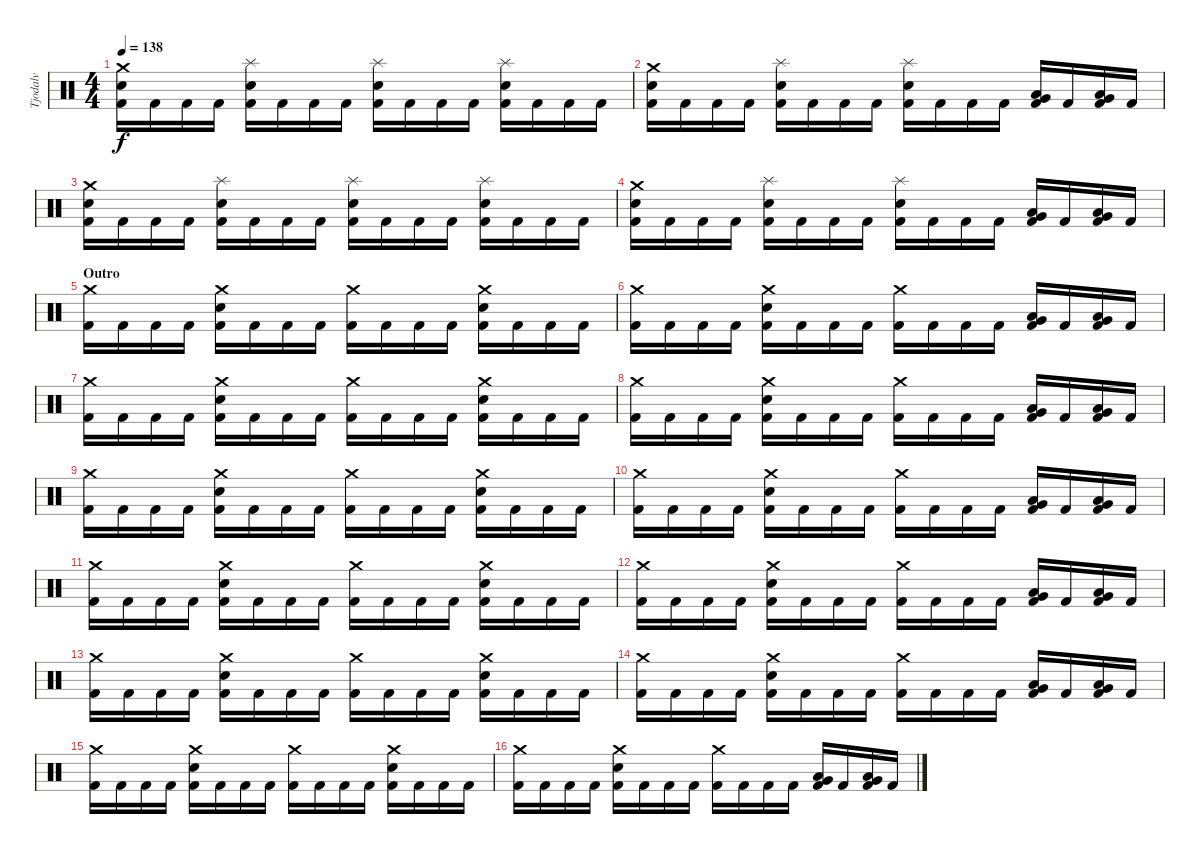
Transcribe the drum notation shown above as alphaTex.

\track ("Tjodalv" "Tjodalv") {instrument percussion}
\staff {score}
\articulation defaults
\ts (4 4)
\tempo 138
\clef neutral
\ks c
("Crash medium (hit)" "Snare (hit) 2" "Kick (hit) 2").16{dy f} "Kick (hit) 2".16 "Kick (hit) 2".16 "Kick (hit) 2".16 ("Splash (hit)" "Snare (hit) 2" "Kick (hit) 2").16 "Kick (hit) 2".16 "Kick (hit) 2".16 "Kick (hit) 2".16 ("Splash (hit)" "Snare (hit) 2" "Kick (hit) 2").16 "Kick (hit) 2".16 "Kick (hit) 2".16 "Kick (hit) 2".16 ("Splash (hit)" "Snare (hit) 2" "Kick (hit) 2").16 "Kick (hit) 2".16 "Kick (hit) 2".16 "Kick (hit) 2".16 |
("Crash medium (hit)" "Snare (hit) 2" "Kick (hit) 2").16 "Kick (hit) 2".16 "Kick (hit) 2".16 "Kick (hit) 2".16 ("Splash (hit)" "Snare (hit) 2" "Kick (hit) 2").16 "Kick (hit) 2".16 "Kick (hit) 2".16 "Kick (hit) 2".16 ("Splash (hit)" "Snare (hit) 2" "Kick (hit) 2").16 "Kick (hit) 2".16 "Kick (hit) 2".16 "Kick (hit) 2".16 ("Low Tom (hit)" "Very Low Tom (hit)" "Kick (hit) 2").16 "Kick (hit) 2".16 ("Low Floor Tom (hit)" "Very Low Tom (hit)" "Kick (hit) 2").16 "Kick (hit) 2".16 |
("Crash medium (hit)" "Snare (hit) 2" "Kick (hit) 2").16 "Kick (hit) 2".16 "Kick (hit) 2".16 "Kick (hit) 2".16 ("Splash (hit)" "Snare (hit) 2" "Kick (hit) 2").16 "Kick (hit) 2".16 "Kick (hit) 2".16 "Kick (hit) 2".16 ("Splash (hit)" "Snare (hit) 2" "Kick (hit) 2").16 "Kick (hit) 2".16 "Kick (hit) 2".16 "Kick (hit) 2".16 ("Splash (hit)" "Snare (hit) 2" "Kick (hit) 2").16 "Kick (hit) 2".16 "Kick (hit) 2".16 "Kick (hit) 2".16 |
("Crash medium (hit)" "Snare (hit) 2" "Kick (hit) 2").16 "Kick (hit) 2".16 "Kick (hit) 2".16 "Kick (hit) 2".16 ("Splash (hit)" "Snare (hit) 2" "Kick (hit) 2").16 "Kick (hit) 2".16 "Kick (hit) 2".16 "Kick (hit) 2".16 ("Splash (hit)" "Snare (hit) 2" "Kick (hit) 2").16 "Kick (hit) 2".16 "Kick (hit) 2".16 "Kick (hit) 2".16 ("Low Tom (hit)" "Very Low Tom (hit)" "Kick (hit) 2").16 "Kick (hit) 2".16 ("Low Floor Tom (hit)" "Very Low Tom (hit)" "Kick (hit) 2").16 "Kick (hit) 2".16 |
\section ("" "Outro")
("Crash medium (hit)" "Kick (hit) 2").16 "Kick (hit) 2".16 "Kick (hit) 2".16 "Kick (hit) 2".16 ("Crash medium (hit)" "Snare (hit) 2" "Kick (hit) 2").16 "Kick (hit) 2".16 "Kick (hit) 2".16 "Kick (hit) 2".16 ("Crash medium (hit)" "Kick (hit) 2").16 "Kick (hit) 2".16 "Kick (hit) 2".16 "Kick (hit) 2".16 ("Crash medium (hit)" "Snare (hit) 2" "Kick (hit) 2").16 "Kick (hit) 2".16 "Kick (hit) 2".16 "Kick (hit) 2".16 |
("Crash medium (hit)" "Kick (hit) 2").16 "Kick (hit) 2".16 "Kick (hit) 2".16 "Kick (hit) 2".16 ("Crash medium (hit)" "Snare (hit) 2" "Kick (hit) 2").16 "Kick (hit) 2".16 "Kick (hit) 2".16 "Kick (hit) 2".16 ("Crash medium (hit)" "Kick (hit) 2").16 "Kick (hit) 2".16 "Kick (hit) 2".16 "Kick (hit) 2".16 ("Low Tom (hit)" "Very Low Tom (hit)" "Kick (hit) 2").16 "Kick (hit) 2".16 ("Low Floor Tom (hit)" "Very Low Tom (hit)" "Kick (hit) 2").16 "Kick (hit) 2".16 |
("Crash medium (hit)" "Kick (hit) 2").16 "Kick (hit) 2".16 "Kick (hit) 2".16 "Kick (hit) 2".16 ("Crash medium (hit)" "Snare (hit) 2" "Kick (hit) 2").16 "Kick (hit) 2".16 "Kick (hit) 2".16 "Kick (hit) 2".16 ("Crash medium (hit)" "Kick (hit) 2").16 "Kick (hit) 2".16 "Kick (hit) 2".16 "Kick (hit) 2".16 ("Crash medium (hit)" "Snare (hit) 2" "Kick (hit) 2").16 "Kick (hit) 2".16 "Kick (hit) 2".16 "Kick (hit) 2".16 |
("Crash medium (hit)" "Kick (hit) 2").16 "Kick (hit) 2".16 "Kick (hit) 2".16 "Kick (hit) 2".16 ("Crash medium (hit)" "Snare (hit) 2" "Kick (hit) 2").16 "Kick (hit) 2".16 "Kick (hit) 2".16 "Kick (hit) 2".16 ("Crash medium (hit)" "Kick (hit) 2").16 "Kick (hit) 2".16 "Kick (hit) 2".16 "Kick (hit) 2".16 ("Low Tom (hit)" "Very Low Tom (hit)" "Kick (hit) 2").16 "Kick (hit) 2".16 ("Low Floor Tom (hit)" "Very Low Tom (hit)" "Kick (hit) 2").16 "Kick (hit) 2".16 |
("Crash medium (hit)" "Kick (hit) 2").16 "Kick (hit) 2".16 "Kick (hit) 2".16 "Kick (hit) 2".16 ("Crash medium (hit)" "Snare (hit) 2" "Kick (hit) 2").16 "Kick (hit) 2".16 "Kick (hit) 2".16 "Kick (hit) 2".16 ("Crash medium (hit)" "Kick (hit) 2").16 "Kick (hit) 2".16 "Kick (hit) 2".16 "Kick (hit) 2".16 ("Crash medium (hit)" "Snare (hit) 2" "Kick (hit) 2").16 "Kick (hit) 2".16 "Kick (hit) 2".16 "Kick (hit) 2".16 |
("Crash medium (hit)" "Kick (hit) 2").16 "Kick (hit) 2".16 "Kick (hit) 2".16 "Kick (hit) 2".16 ("Crash medium (hit)" "Snare (hit) 2" "Kick (hit) 2").16 "Kick (hit) 2".16 "Kick (hit) 2".16 "Kick (hit) 2".16 ("Crash medium (hit)" "Kick (hit) 2").16 "Kick (hit) 2".16 "Kick (hit) 2".16 "Kick (hit) 2".16 ("Low Tom (hit)" "Very Low Tom (hit)" "Kick (hit) 2").16 "Kick (hit) 2".16 ("Low Floor Tom (hit)" "Very Low Tom (hit)" "Kick (hit) 2").16 "Kick (hit) 2".16 |
("Crash medium (hit)" "Kick (hit) 2").16 "Kick (hit) 2".16 "Kick (hit) 2".16 "Kick (hit) 2".16 ("Crash medium (hit)" "Snare (hit) 2" "Kick (hit) 2").16 "Kick (hit) 2".16 "Kick (hit) 2".16 "Kick (hit) 2".16 ("Crash medium (hit)" "Kick (hit) 2").16 "Kick (hit) 2".16 "Kick (hit) 2".16 "Kick (hit) 2".16 ("Crash medium (hit)" "Snare (hit) 2" "Kick (hit) 2").16 "Kick (hit) 2".16 "Kick (hit) 2".16 "Kick (hit) 2".16 |
("Crash medium (hit)" "Kick (hit) 2").16 "Kick (hit) 2".16 "Kick (hit) 2".16 "Kick (hit) 2".16 ("Crash medium (hit)" "Snare (hit) 2" "Kick (hit) 2").16 "Kick (hit) 2".16 "Kick (hit) 2".16 "Kick (hit) 2".16 ("Crash medium (hit)" "Kick (hit) 2").16 "Kick (hit) 2".16 "Kick (hit) 2".16 "Kick (hit) 2".16 ("Low Tom (hit)" "Very Low Tom (hit)" "Kick (hit) 2").16 "Kick (hit) 2".16 ("Low Floor Tom (hit)" "Very Low Tom (hit)" "Kick (hit) 2").16 "Kick (hit) 2".16 |
("Crash medium (hit)" "Kick (hit) 2").16 "Kick (hit) 2".16 "Kick (hit) 2".16 "Kick (hit) 2".16 ("Crash medium (hit)" "Snare (hit) 2" "Kick (hit) 2").16 "Kick (hit) 2".16 "Kick (hit) 2".16 "Kick (hit) 2".16 ("Crash medium (hit)" "Kick (hit) 2").16 "Kick (hit) 2".16 "Kick (hit) 2".16 "Kick (hit) 2".16 ("Crash medium (hit)" "Snare (hit) 2" "Kick (hit) 2").16 "Kick (hit) 2".16 "Kick (hit) 2".16 "Kick (hit) 2".16 |
("Crash medium (hit)" "Kick (hit) 2").16 "Kick (hit) 2".16 "Kick (hit) 2".16 "Kick (hit) 2".16 ("Crash medium (hit)" "Snare (hit) 2" "Kick (hit) 2").16 "Kick (hit) 2".16 "Kick (hit) 2".16 "Kick (hit) 2".16 ("Crash medium (hit)" "Kick (hit) 2").16 "Kick (hit) 2".16 "Kick (hit) 2".16 "Kick (hit) 2".16 ("Low Tom (hit)" "Very Low Tom (hit)" "Kick (hit) 2").16 "Kick (hit) 2".16 ("Low Floor Tom (hit)" "Very Low Tom (hit)" "Kick (hit) 2").16 "Kick (hit) 2".16 |
("Crash medium (hit)" "Kick (hit) 2").16 "Kick (hit) 2".16 "Kick (hit) 2".16 "Kick (hit) 2".16 ("Crash medium (hit)" "Snare (hit) 2" "Kick (hit) 2").16 "Kick (hit) 2".16 "Kick (hit) 2".16 "Kick (hit) 2".16 ("Crash medium (hit)" "Kick (hit) 2").16 "Kick (hit) 2".16 "Kick (hit) 2".16 "Kick (hit) 2".16 ("Crash medium (hit)" "Snare (hit) 2" "Kick (hit) 2").16 "Kick (hit) 2".16 "Kick (hit) 2".16 "Kick (hit) 2".16 |
("Crash medium (hit)" "Kick (hit) 2").16 "Kick (hit) 2".16 "Kick (hit) 2".16 "Kick (hit) 2".16 ("Crash medium (hit)" "Snare (hit) 2" "Kick (hit) 2").16 "Kick (hit) 2".16 "Kick (hit) 2".16 "Kick (hit) 2".16 ("Crash medium (hit)" "Kick (hit) 2").16 "Kick (hit) 2".16 "Kick (hit) 2".16 "Kick (hit) 2".16 ("Low Tom (hit)" "Very Low Tom (hit)" "Kick (hit) 2").16 "Kick (hit) 2".16 ("Low Floor Tom (hit)" "Very Low Tom (hit)" "Kick (hit) 2").16 "Kick (hit) 2".16
